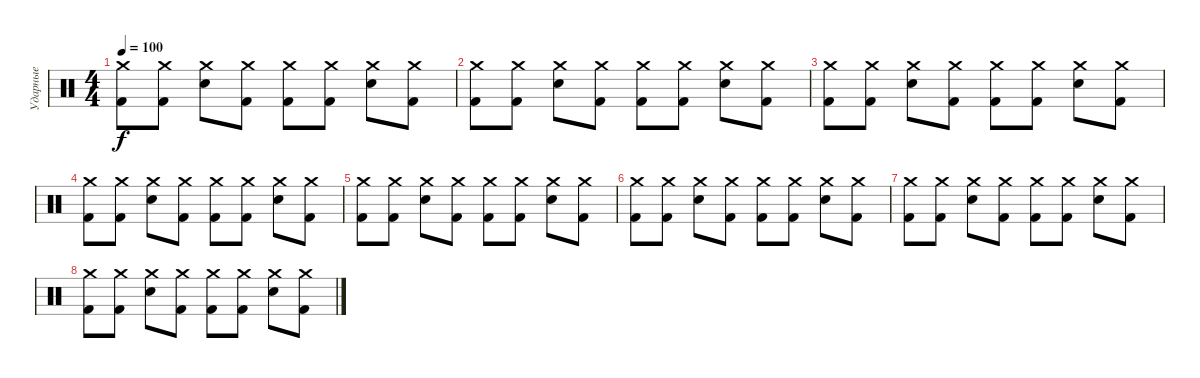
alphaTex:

\track ("Ударные" "Ударные") {instrument percussion}
\staff {score}
\articulation defaults
\ts (4 4)
\tempo 100
\clef neutral
\ks c
("Crash medium (hit)" "Kick (hit) 2").8{dy f} ("Crash medium (hit)" "Kick (hit) 2").8 ("Crash medium (hit)" "Snare (hit) 2").8 ("Crash medium (hit)" "Kick (hit) 2").8 ("Crash medium (hit)" "Kick (hit) 2").8 ("Crash medium (hit)" "Kick (hit) 2").8 ("Crash medium (hit)" "Snare (hit) 2").8 ("Crash medium (hit)" "Kick (hit) 2").8 |
("Crash medium (hit)" "Kick (hit) 2").8 ("Crash medium (hit)" "Kick (hit) 2").8 ("Crash medium (hit)" "Snare (hit) 2").8 ("Crash medium (hit)" "Kick (hit) 2").8 ("Crash medium (hit)" "Kick (hit) 2").8 ("Crash medium (hit)" "Kick (hit) 2").8 ("Crash medium (hit)" "Snare (hit) 2").8 ("Crash medium (hit)" "Kick (hit) 2").8 |
("Crash medium (hit)" "Kick (hit) 2").8 ("Crash medium (hit)" "Kick (hit) 2").8 ("Crash medium (hit)" "Snare (hit) 2").8 ("Crash medium (hit)" "Kick (hit) 2").8 ("Crash medium (hit)" "Kick (hit) 2").8 ("Crash medium (hit)" "Kick (hit) 2").8 ("Crash medium (hit)" "Snare (hit) 2").8 ("Crash medium (hit)" "Kick (hit) 2").8 |
("Crash medium (hit)" "Kick (hit) 2").8 ("Crash medium (hit)" "Kick (hit) 2").8 ("Crash medium (hit)" "Snare (hit) 2").8 ("Crash medium (hit)" "Kick (hit) 2").8 ("Crash medium (hit)" "Kick (hit) 2").8 ("Crash medium (hit)" "Kick (hit) 2").8 ("Crash medium (hit)" "Snare (hit) 2").8 ("Crash medium (hit)" "Kick (hit) 2").8 |
("Crash medium (hit)" "Kick (hit) 2").8 ("Crash medium (hit)" "Kick (hit) 2").8 ("Crash medium (hit)" "Snare (hit) 2").8 ("Crash medium (hit)" "Kick (hit) 2").8 ("Crash medium (hit)" "Kick (hit) 2").8 ("Crash medium (hit)" "Kick (hit) 2").8 ("Crash medium (hit)" "Snare (hit) 2").8 ("Crash medium (hit)" "Kick (hit) 2").8 |
("Crash medium (hit)" "Kick (hit) 2").8 ("Crash medium (hit)" "Kick (hit) 2").8 ("Crash medium (hit)" "Snare (hit) 2").8 ("Crash medium (hit)" "Kick (hit) 2").8 ("Crash medium (hit)" "Kick (hit) 2").8 ("Crash medium (hit)" "Kick (hit) 2").8 ("Crash medium (hit)" "Snare (hit) 2").8 ("Crash medium (hit)" "Kick (hit) 2").8 |
("Crash medium (hit)" "Kick (hit) 2").8 ("Crash medium (hit)" "Kick (hit) 2").8 ("Crash medium (hit)" "Snare (hit) 2").8 ("Crash medium (hit)" "Kick (hit) 2").8 ("Crash medium (hit)" "Kick (hit) 2").8 ("Crash medium (hit)" "Kick (hit) 2").8 ("Crash medium (hit)" "Snare (hit) 2").8 ("Crash medium (hit)" "Kick (hit) 2").8 |
("Crash medium (hit)" "Kick (hit) 2").8 ("Crash medium (hit)" "Kick (hit) 2").8 ("Crash medium (hit)" "Snare (hit) 2").8 ("Crash medium (hit)" "Kick (hit) 2").8 ("Crash medium (hit)" "Kick (hit) 2").8 ("Crash medium (hit)" "Kick (hit) 2").8 ("Crash medium (hit)" "Snare (hit) 2").8 ("Crash medium (hit)" "Kick (hit) 2").8
